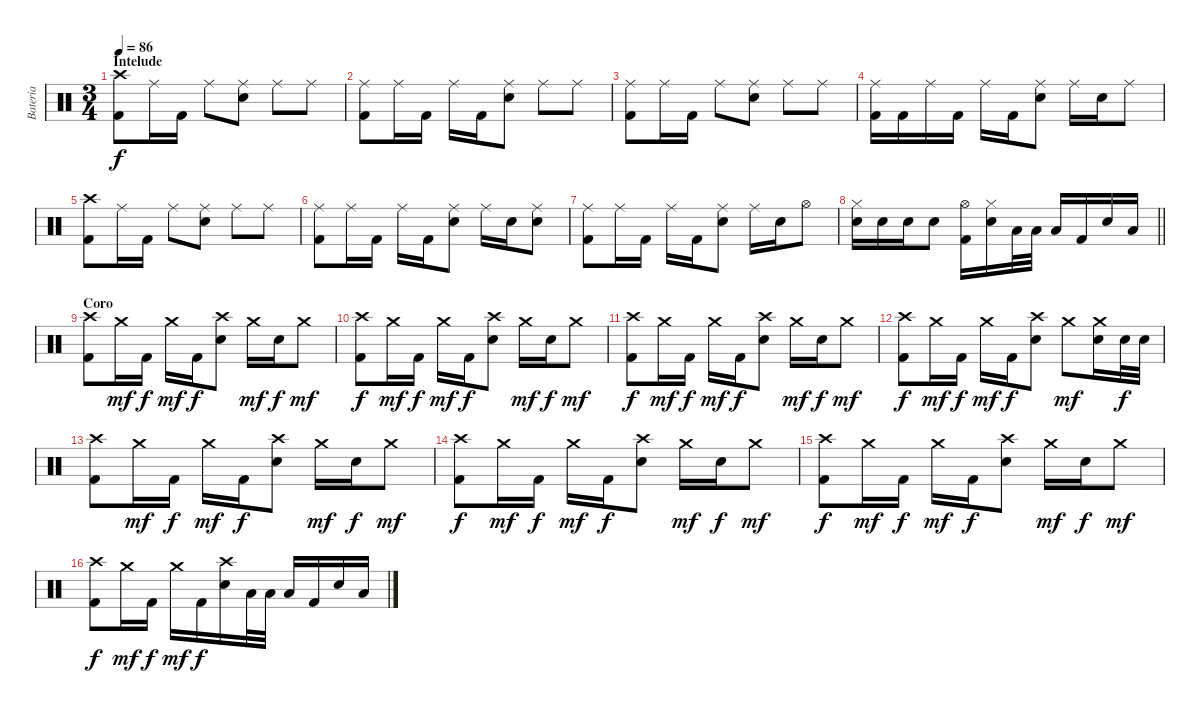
\track ("Bateria" "Bateria") {instrument percussion}
\staff {score}
\articulation defaults
\ts (3 4)
\section ("" "Intelude")
\tempo 86
\clef neutral
\ks c
("Crash high (hit)" "Kick (hit) 2").8{dy f} "Ride (middle)".16 "Kick (hit) 2".16 "Ride (middle)".8 ("Ride (middle)" "Snare (hit) 2").8 "Ride (middle)".8 "Ride (middle)".8 |
("Ride (middle)" "Kick (hit) 2").8 "Ride (middle)".16 "Kick (hit) 2".16 "Ride (middle)".16 "Kick (hit) 2".16 ("Ride (middle)" "Snare (hit) 2").8 "Ride (middle)".8 "Ride (middle)".8 |
("Ride (middle)" "Kick (hit) 2").8 "Ride (middle)".16 "Kick (hit) 2".16 "Ride (middle)".8 ("Ride (middle)" "Snare (hit) 2").8 "Ride (middle)".8 "Ride (middle)".8 |
("Ride (middle)" "Kick (hit) 2").16 "Kick (hit) 2".16 "Ride (middle)".16 "Kick (hit) 2".16 "Ride (middle)".16 "Kick (hit) 2".16 ("Ride (middle)" "Snare (hit) 2").8 "Ride (middle)".16 "Snare (hit) 2".16 "Ride (middle)".8 |
("Crash high (hit)" "Kick (hit) 2").8 "Ride (middle)".16 "Kick (hit) 2".16 "Ride (middle)".8 ("Ride (middle)" "Snare (hit) 2").8 "Ride (middle)".8 "Ride (middle)".8 |
("Ride (middle)" "Kick (hit) 2").8 "Ride (middle)".16 "Kick (hit) 2".16 "Ride (middle)".16 "Kick (hit) 2".16 ("Ride (middle)" "Snare (hit) 2").8 "Ride (middle)".16 "Snare (hit) 2".16 ("Ride (middle)" "Snare (hit) 2").8 |
("Ride (middle)" "Kick (hit) 2").8 "Ride (middle)".16 "Kick (hit) 2".16 "Ride (middle)".16 "Kick (hit) 2".16 ("Ride (middle)" "Snare (hit) 2").8 "Ride (middle)".16 "Snare (hit) 2".16 "Hi-Hat (open)".8 |
\barLineRight lightlight
("Hi-Hat (closed)" "Snare (hit) 2").16 "Snare (hit) 2".16 "Snare (hit) 2".16 "Snare (hit) 2".8 ("Hi-Hat (open)" "Kick (hit) 2").16 ("Hi-Hat (closed)" "Snare (hit) 2").16 "Low Tom (hit)".32 "Low Tom (hit)".32 "Low Tom (hit)".16 "Kick (hit) 2".16 "Snare (hit) 2".16 "Low Floor Tom (hit)".16 |
\section ("" "Coro")
("Crash high (hit)" "Kick (hit) 2").8 "Crash medium (hit)".16{dy mf} "Kick (hit) 2".16{dy f} "Crash medium (hit)".16{dy mf} "Kick (hit) 2".16{dy f} ("Crash high (hit)" "Snare (hit) 2").8 "Crash medium (hit)".16{dy mf} "Snare (hit) 2".16{dy f} "Crash medium (hit)".8{dy mf} |
("Crash high (hit)" "Kick (hit) 2").8{dy f} "Crash medium (hit)".16{dy mf} "Kick (hit) 2".16{dy f} "Crash medium (hit)".16{dy mf} "Kick (hit) 2".16{dy f} ("Crash high (hit)" "Snare (hit) 2").8 "Crash medium (hit)".16{dy mf} "Snare (hit) 2".16{dy f} "Crash medium (hit)".8{dy mf} |
("Crash high (hit)" "Kick (hit) 2").8{dy f} "Crash medium (hit)".16{dy mf} "Kick (hit) 2".16{dy f} "Crash medium (hit)".16{dy mf} "Kick (hit) 2".16{dy f} ("Crash high (hit)" "Snare (hit) 2").8 "Crash medium (hit)".16{dy mf} "Snare (hit) 2".16{dy f} "Crash medium (hit)".8{dy mf} |
("Crash high (hit)" "Kick (hit) 2").8{dy f} "Crash medium (hit)".16{dy mf} "Kick (hit) 2".16{dy f} "Crash medium (hit)".16{dy mf} "Kick (hit) 2".16{dy f} ("Crash high (hit)" "Snare (hit) 2").8 "Crash medium (hit)".8{dy mf} ("Crash medium (hit)" "Snare (hit) 2").16 "Snare (hit) 2".32{dy f} "Snare (hit) 2".32 |
("Crash high (hit)" "Kick (hit) 2").8 "Crash medium (hit)".16{dy mf} "Kick (hit) 2".16{dy f} "Crash medium (hit)".16{dy mf} "Kick (hit) 2".16{dy f} ("Crash high (hit)" "Snare (hit) 2").8 "Crash medium (hit)".16{dy mf} "Snare (hit) 2".16{dy f} "Crash medium (hit)".8{dy mf} |
("Crash high (hit)" "Kick (hit) 2").8{dy f} "Crash medium (hit)".16{dy mf} "Kick (hit) 2".16{dy f} "Crash medium (hit)".16{dy mf} "Kick (hit) 2".16{dy f} ("Crash high (hit)" "Snare (hit) 2").8 "Crash medium (hit)".16{dy mf} "Snare (hit) 2".16{dy f} "Crash medium (hit)".8{dy mf} |
("Crash high (hit)" "Kick (hit) 2").8{dy f} "Crash medium (hit)".16{dy mf} "Kick (hit) 2".16{dy f} "Crash medium (hit)".16{dy mf} "Kick (hit) 2".16{dy f} ("Crash high (hit)" "Snare (hit) 2").8 "Crash medium (hit)".16{dy mf} "Snare (hit) 2".16{dy f} "Crash medium (hit)".8{dy mf} |
("Crash high (hit)" "Kick (hit) 2").8{dy f} "Crash medium (hit)".16{dy mf} "Kick (hit) 2".16{dy f} "Crash medium (hit)".16{dy mf} "Kick (hit) 2".16{dy f} ("Crash high (hit)" "Snare (hit) 2").16 "Low Tom (hit)".32 "Low Tom (hit)".32 "Low Tom (hit)".16 "Kick (hit) 2".16 "Snare (hit) 2".16 "Low Floor Tom (hit)".16
